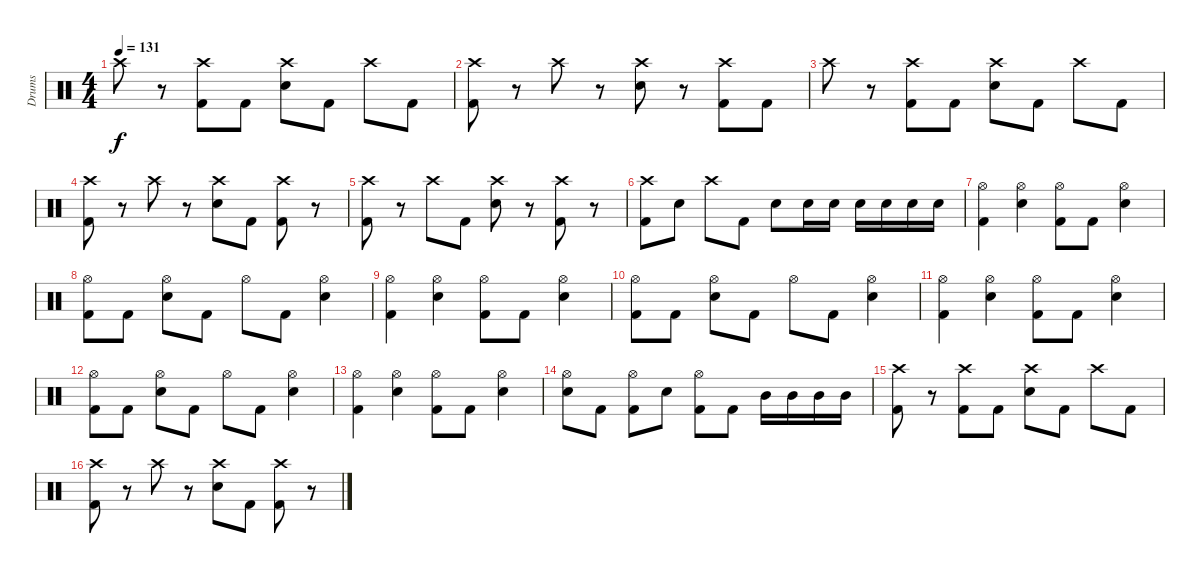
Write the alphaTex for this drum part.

\track ("Drums" "Drums") {instrument percussion}
\staff {score}
\articulation defaults
\ts (4 4)
\tempo 131
\clef neutral
\ks c "Crash high (hit)".8{dy f}
r.8 ("Crash high (hit)" "Kick (hit) 2").8 "Kick (hit) 2".8 ("Crash high (hit)" "Electric Snare (hit)").8 "Kick (hit) 2".8 "Crash high (hit)".8 "Kick (hit) 2".8 |
("Crash high (hit)" "Kick (hit) 2").8 r.8 "Crash high (hit)".8 r.8 ("Crash high (hit)" "Electric Snare (hit)").8 r.8 ("Crash high (hit)" "Kick (hit) 2").8 "Kick (hit) 2".8 |
"Crash high (hit)".8 r.8 ("Crash high (hit)" "Kick (hit) 2").8 "Kick (hit) 2".8 ("Crash high (hit)" "Electric Snare (hit)").8 "Kick (hit) 2".8 "Crash high (hit)".8 "Kick (hit) 2".8 |
("Crash high (hit)" "Kick (hit) 2").8 r.8 "Crash high (hit)".8 r.8 ("Crash high (hit)" "Electric Snare (hit)").8 "Kick (hit) 2".8 ("Crash high (hit)" "Kick (hit) 2").8 r.8 |
("Crash high (hit)" "Kick (hit) 2").8 r.8 "Crash high (hit)".8 "Kick (hit) 2".8 ("Crash high (hit)" "Electric Snare (hit)").8 r.8 ("Crash high (hit)" "Kick (hit) 2").8 r.8 |
("Crash high (hit)" "Kick (hit) 2").8 "Electric Snare (hit)".8 "Crash high (hit)".8 "Kick (hit) 2".8 "Electric Snare (hit)".8 "Electric Snare (hit)".16 "Electric Snare (hit)".16 "Electric Snare (hit)".16 "Electric Snare (hit)".16 "Electric Snare (hit)".16 "Electric Snare (hit)".16 |
("Hi-Hat (open)" "Kick (hit) 2").4 ("Hi-Hat (open)" "Electric Snare (hit)").4 ("Hi-Hat (open)" "Kick (hit) 2").8 "Kick (hit) 2".8 ("Hi-Hat (open)" "Electric Snare (hit)").4 |
("Hi-Hat (open)" "Kick (hit) 2").8 "Kick (hit) 2".8 ("Hi-Hat (open)" "Electric Snare (hit)").8 "Kick (hit) 2".8 "Hi-Hat (open)".8 "Kick (hit) 2".8 ("Hi-Hat (open)" "Electric Snare (hit)").4 |
("Hi-Hat (open)" "Kick (hit) 2").4 ("Hi-Hat (open)" "Electric Snare (hit)").4 ("Hi-Hat (open)" "Kick (hit) 2").8 "Kick (hit) 2".8 ("Hi-Hat (open)" "Electric Snare (hit)").4 |
("Hi-Hat (open)" "Kick (hit) 2").8 "Kick (hit) 2".8 ("Hi-Hat (open)" "Electric Snare (hit)").8 "Kick (hit) 2".8 "Hi-Hat (open)".8 "Kick (hit) 2".8 ("Hi-Hat (open)" "Electric Snare (hit)").4 |
("Hi-Hat (open)" "Kick (hit) 2").4 ("Hi-Hat (open)" "Electric Snare (hit)").4 ("Hi-Hat (open)" "Kick (hit) 2").8 "Kick (hit) 2".8 ("Hi-Hat (open)" "Electric Snare (hit)").4 |
("Hi-Hat (open)" "Kick (hit) 2").8 "Kick (hit) 2".8 ("Hi-Hat (open)" "Electric Snare (hit)").8 "Kick (hit) 2".8 "Hi-Hat (open)".8 "Kick (hit) 2".8 ("Hi-Hat (open)" "Electric Snare (hit)").4 |
("Hi-Hat (open)" "Kick (hit) 2").4 ("Hi-Hat (open)" "Electric Snare (hit)").4 ("Hi-Hat (open)" "Kick (hit) 2").8 "Kick (hit) 2".8 ("Hi-Hat (open)" "Electric Snare (hit)").4 |
("Hi-Hat (open)" "Electric Snare (hit)").8 "Kick (hit) 2".8 ("Hi-Hat (open)" "Kick (hit) 2").8 "Electric Snare (hit)".8 ("Hi-Hat (open)" "Kick (hit) 2").8 "Kick (hit) 2".8 "Mid Tom (hit)".16 "Mid Tom (hit)".16 "Mid Tom (hit)".16 "Mid Tom (hit)".16 |
("Crash high (hit)" "Kick (hit) 2").8 r.8 ("Crash high (hit)" "Kick (hit) 2").8 "Kick (hit) 2".8 ("Crash high (hit)" "Electric Snare (hit)").8 "Kick (hit) 2".8 "Crash high (hit)".8 "Kick (hit) 2".8 |
("Crash high (hit)" "Kick (hit) 2").8 r.8 "Crash high (hit)".8 r.8 ("Crash high (hit)" "Electric Snare (hit)").8 "Kick (hit) 2".8 ("Crash high (hit)" "Kick (hit) 2").8 r.8
